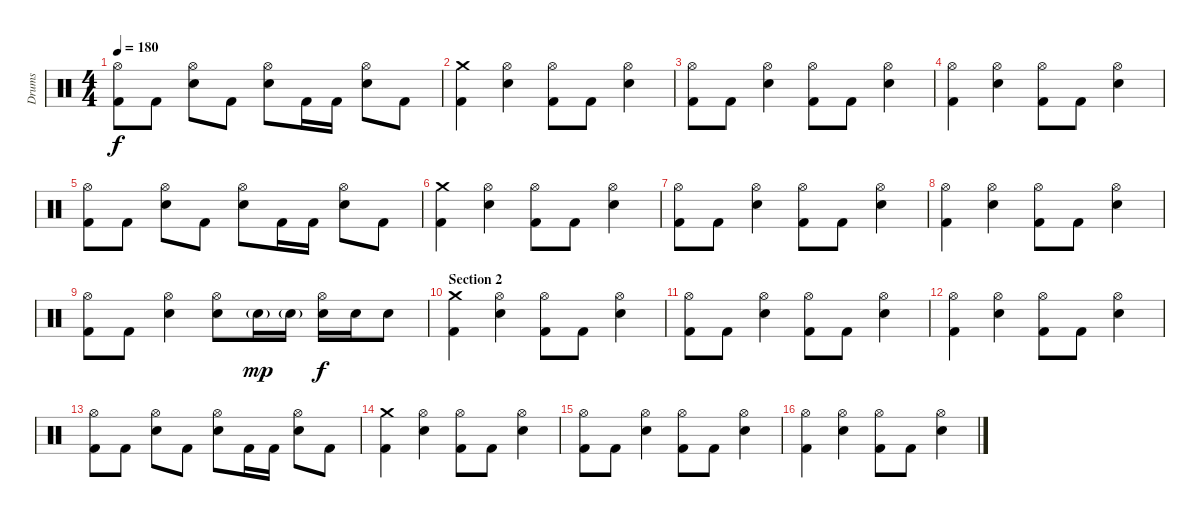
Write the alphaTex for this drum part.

\track ("Drums" "Drums") {instrument percussion}
\staff {score}
\articulation defaults
\ts (4 4)
\tempo 180
\clef neutral
\ks c
("Hi-Hat (open)" "Kick (hit) 2").8{dy f} "Kick (hit) 2".8 ("Hi-Hat (open)" "Electric Snare (hit)").8 "Kick (hit) 2".8 ("Hi-Hat (open)" "Electric Snare (hit)").8 "Kick (hit) 2".16 "Kick (hit) 2".16 ("Hi-Hat (open)" "Electric Snare (hit)").8 "Kick (hit) 2".8 |
("Crash medium (hit)" "Kick (hit) 2").4 ("Hi-Hat (open)" "Electric Snare (hit)").4 ("Hi-Hat (open)" "Kick (hit) 2").8 "Kick (hit) 2".8 ("Hi-Hat (open)" "Electric Snare (hit)").4 |
("Hi-Hat (open)" "Kick (hit) 2").8 "Kick (hit) 2".8 ("Hi-Hat (open)" "Electric Snare (hit)").4 ("Hi-Hat (open)" "Kick (hit) 2").8 "Kick (hit) 2".8 ("Hi-Hat (open)" "Electric Snare (hit)").4 |
("Hi-Hat (open)" "Kick (hit) 2").4 ("Hi-Hat (open)" "Electric Snare (hit)").4 ("Hi-Hat (open)" "Kick (hit) 2").8 "Kick (hit) 2".8 ("Hi-Hat (open)" "Electric Snare (hit)").4 |
("Hi-Hat (open)" "Kick (hit) 2").8 "Kick (hit) 2".8 ("Hi-Hat (open)" "Electric Snare (hit)").8 "Kick (hit) 2".8 ("Hi-Hat (open)" "Electric Snare (hit)").8 "Kick (hit) 2".16 "Kick (hit) 2".16 ("Hi-Hat (open)" "Electric Snare (hit)").8 "Kick (hit) 2".8 |
("Crash medium (hit)" "Kick (hit) 2").4 ("Hi-Hat (open)" "Electric Snare (hit)").4 ("Hi-Hat (open)" "Kick (hit) 2").8 "Kick (hit) 2".8 ("Hi-Hat (open)" "Electric Snare (hit)").4 |
("Hi-Hat (open)" "Kick (hit) 2").8 "Kick (hit) 2".8 ("Hi-Hat (open)" "Electric Snare (hit)").4 ("Hi-Hat (open)" "Kick (hit) 2").8 "Kick (hit) 2".8 ("Hi-Hat (open)" "Electric Snare (hit)").4 |
("Hi-Hat (open)" "Kick (hit) 2").4 ("Hi-Hat (open)" "Electric Snare (hit)").4 ("Hi-Hat (open)" "Kick (hit) 2").8 "Kick (hit) 2".8 ("Hi-Hat (open)" "Electric Snare (hit)").4 |
("Hi-Hat (open)" "Kick (hit) 2").8 "Kick (hit) 2".8 ("Hi-Hat (open)" "Electric Snare (hit)").4 ("Hi-Hat (open)" "Electric Snare (hit)").8 "Electric Snare (hit)"{g}.16{dy mp} "Electric Snare (hit)"{g}.16 ("Hi-Hat (open)" "Electric Snare (hit)").16{dy f} "Electric Snare (hit)".16 "Electric Snare (hit)".8 |
\section ("" "Section 2")
("Crash medium (hit)" "Kick (hit) 2").4 ("Hi-Hat (open)" "Electric Snare (hit)").4 ("Hi-Hat (open)" "Kick (hit) 2").8 "Kick (hit) 2".8 ("Hi-Hat (open)" "Electric Snare (hit)").4 |
("Hi-Hat (open)" "Kick (hit) 2").8 "Kick (hit) 2".8 ("Hi-Hat (open)" "Electric Snare (hit)").4 ("Hi-Hat (open)" "Kick (hit) 2").8 "Kick (hit) 2".8 ("Hi-Hat (open)" "Electric Snare (hit)").4 |
("Hi-Hat (open)" "Kick (hit) 2").4 ("Hi-Hat (open)" "Electric Snare (hit)").4 ("Hi-Hat (open)" "Kick (hit) 2").8 "Kick (hit) 2".8 ("Hi-Hat (open)" "Electric Snare (hit)").4 |
("Hi-Hat (open)" "Kick (hit) 2").8 "Kick (hit) 2".8 ("Hi-Hat (open)" "Electric Snare (hit)").8 "Kick (hit) 2".8 ("Hi-Hat (open)" "Electric Snare (hit)").8 "Kick (hit) 2".16 "Kick (hit) 2".16 ("Hi-Hat (open)" "Electric Snare (hit)").8 "Kick (hit) 2".8 |
("Crash medium (hit)" "Kick (hit) 2").4 ("Hi-Hat (open)" "Electric Snare (hit)").4 ("Hi-Hat (open)" "Kick (hit) 2").8 "Kick (hit) 2".8 ("Hi-Hat (open)" "Electric Snare (hit)").4 |
("Hi-Hat (open)" "Kick (hit) 2").8 "Kick (hit) 2".8 ("Hi-Hat (open)" "Electric Snare (hit)").4 ("Hi-Hat (open)" "Kick (hit) 2").8 "Kick (hit) 2".8 ("Hi-Hat (open)" "Electric Snare (hit)").4 |
("Hi-Hat (open)" "Kick (hit) 2").4 ("Hi-Hat (open)" "Electric Snare (hit)").4 ("Hi-Hat (open)" "Kick (hit) 2").8 "Kick (hit) 2".8 ("Hi-Hat (open)" "Electric Snare (hit)").4
